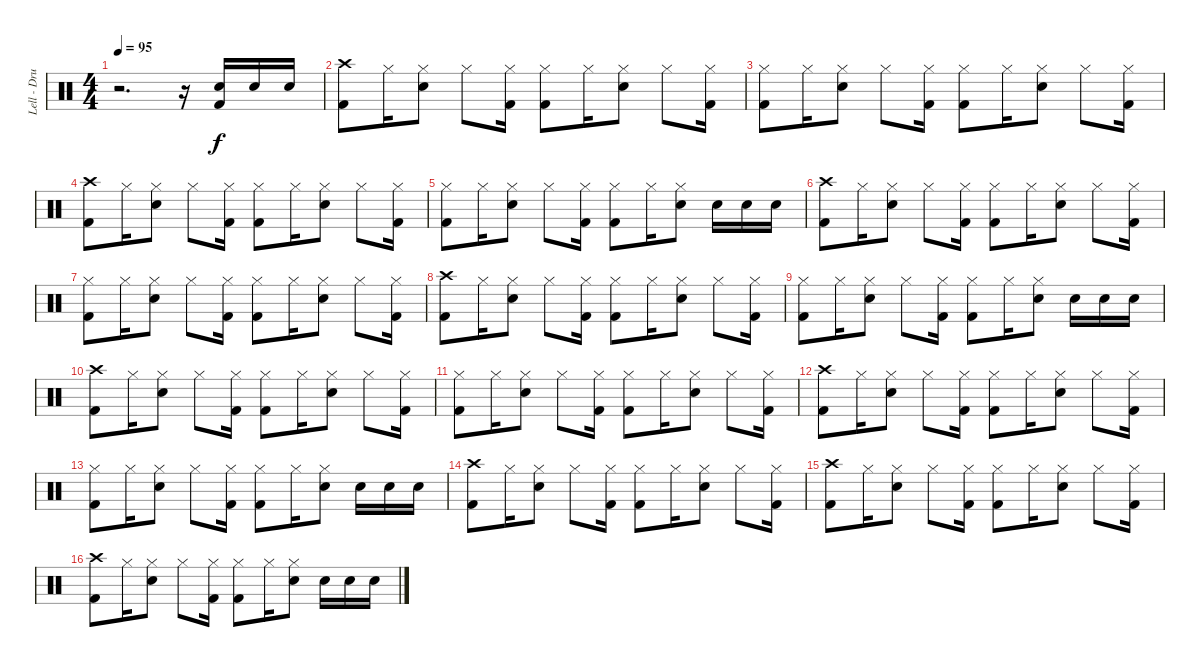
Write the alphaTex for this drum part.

\track ("Lell - Drums" "Lell - Dru") {instrument percussion}
\staff {score}
\articulation defaults
\ts (4 4)
\tempo 95
\clef neutral
\ks c
r.2{d dy f} r.16 ("Snare (hit) 2" "Kick (hit) 2").16 "Snare (hit) 2".16 "Snare (hit) 2".16 |
("Crash high (hit)" "Kick (hit) 2").8 "Hi-Hat (closed)".16 ("Hi-Hat (closed)" "Snare (hit) 2").8 "Hi-Hat (closed)".8 ("Hi-Hat (closed)" "Kick (hit) 2").16 ("Hi-Hat (closed)" "Kick (hit) 2").8 "Hi-Hat (closed)".16 ("Hi-Hat (closed)" "Snare (hit) 2").8 "Hi-Hat (closed)".8 ("Hi-Hat (closed)" "Kick (hit) 2").16 |
("Hi-Hat (closed)" "Kick (hit) 2").8 "Hi-Hat (closed)".16 ("Hi-Hat (closed)" "Snare (hit) 2").8 "Hi-Hat (closed)".8 ("Hi-Hat (closed)" "Kick (hit) 2").16 ("Hi-Hat (closed)" "Kick (hit) 2").8 "Hi-Hat (closed)".16 ("Hi-Hat (closed)" "Snare (hit) 2").8 "Hi-Hat (closed)".8 ("Hi-Hat (closed)" "Kick (hit) 2").16 |
("Crash high (hit)" "Kick (hit) 2").8 "Hi-Hat (closed)".16 ("Hi-Hat (closed)" "Snare (hit) 2").8 "Hi-Hat (closed)".8 ("Hi-Hat (closed)" "Kick (hit) 2").16 ("Hi-Hat (closed)" "Kick (hit) 2").8 "Hi-Hat (closed)".16 ("Hi-Hat (closed)" "Snare (hit) 2").8 "Hi-Hat (closed)".8 ("Hi-Hat (closed)" "Kick (hit) 2").16 |
("Hi-Hat (closed)" "Kick (hit) 2").8 "Hi-Hat (closed)".16 ("Hi-Hat (closed)" "Snare (hit) 2").8 "Hi-Hat (closed)".8 ("Hi-Hat (closed)" "Kick (hit) 2").16 ("Hi-Hat (closed)" "Kick (hit) 2").8 "Hi-Hat (closed)".16 ("Hi-Hat (closed)" "Snare (hit) 2").8 "Snare (hit) 2".16 "Snare (hit) 2".16 "Snare (hit) 2".16 |
("Crash high (hit)" "Kick (hit) 2").8 "Hi-Hat (closed)".16 ("Hi-Hat (closed)" "Snare (hit) 2").8 "Hi-Hat (closed)".8 ("Hi-Hat (closed)" "Kick (hit) 2").16 ("Hi-Hat (closed)" "Kick (hit) 2").8 "Hi-Hat (closed)".16 ("Hi-Hat (closed)" "Snare (hit) 2").8 "Hi-Hat (closed)".8 ("Hi-Hat (closed)" "Kick (hit) 2").16 |
("Hi-Hat (closed)" "Kick (hit) 2").8 "Hi-Hat (closed)".16 ("Hi-Hat (closed)" "Snare (hit) 2").8 "Hi-Hat (closed)".8 ("Hi-Hat (closed)" "Kick (hit) 2").16 ("Hi-Hat (closed)" "Kick (hit) 2").8 "Hi-Hat (closed)".16 ("Hi-Hat (closed)" "Snare (hit) 2").8 "Hi-Hat (closed)".8 ("Hi-Hat (closed)" "Kick (hit) 2").16 |
("Crash high (hit)" "Kick (hit) 2").8 "Hi-Hat (closed)".16 ("Hi-Hat (closed)" "Snare (hit) 2").8 "Hi-Hat (closed)".8 ("Hi-Hat (closed)" "Kick (hit) 2").16 ("Hi-Hat (closed)" "Kick (hit) 2").8 "Hi-Hat (closed)".16 ("Hi-Hat (closed)" "Snare (hit) 2").8 "Hi-Hat (closed)".8 ("Hi-Hat (closed)" "Kick (hit) 2").16 |
("Hi-Hat (closed)" "Kick (hit) 2").8 "Hi-Hat (closed)".16 ("Hi-Hat (closed)" "Snare (hit) 2").8 "Hi-Hat (closed)".8 ("Hi-Hat (closed)" "Kick (hit) 2").16 ("Hi-Hat (closed)" "Kick (hit) 2").8 "Hi-Hat (closed)".16 ("Hi-Hat (closed)" "Snare (hit) 2").8 "Snare (hit) 2".16 "Snare (hit) 2".16 "Snare (hit) 2".16 |
("Crash high (hit)" "Kick (hit) 2").8 "Hi-Hat (closed)".16 ("Hi-Hat (closed)" "Snare (hit) 2").8 "Hi-Hat (closed)".8 ("Hi-Hat (closed)" "Kick (hit) 2").16 ("Hi-Hat (closed)" "Kick (hit) 2").8 "Hi-Hat (closed)".16 ("Hi-Hat (closed)" "Snare (hit) 2").8 "Hi-Hat (closed)".8 ("Hi-Hat (closed)" "Kick (hit) 2").16 |
("Hi-Hat (closed)" "Kick (hit) 2").8 "Hi-Hat (closed)".16 ("Hi-Hat (closed)" "Snare (hit) 2").8 "Hi-Hat (closed)".8 ("Hi-Hat (closed)" "Kick (hit) 2").16 ("Hi-Hat (closed)" "Kick (hit) 2").8 "Hi-Hat (closed)".16 ("Hi-Hat (closed)" "Snare (hit) 2").8 "Hi-Hat (closed)".8 ("Hi-Hat (closed)" "Kick (hit) 2").16 |
("Crash high (hit)" "Kick (hit) 2").8 "Hi-Hat (closed)".16 ("Hi-Hat (closed)" "Snare (hit) 2").8 "Hi-Hat (closed)".8 ("Hi-Hat (closed)" "Kick (hit) 2").16 ("Hi-Hat (closed)" "Kick (hit) 2").8 "Hi-Hat (closed)".16 ("Hi-Hat (closed)" "Snare (hit) 2").8 "Hi-Hat (closed)".8 ("Hi-Hat (closed)" "Kick (hit) 2").16 |
("Hi-Hat (closed)" "Kick (hit) 2").8 "Hi-Hat (closed)".16 ("Hi-Hat (closed)" "Snare (hit) 2").8 "Hi-Hat (closed)".8 ("Hi-Hat (closed)" "Kick (hit) 2").16 ("Hi-Hat (closed)" "Kick (hit) 2").8 "Hi-Hat (closed)".16 ("Hi-Hat (closed)" "Snare (hit) 2").8 "Snare (hit) 2".16 "Snare (hit) 2".16 "Snare (hit) 2".16 |
("Crash high (hit)" "Kick (hit) 2").8 "Hi-Hat (closed)".16 ("Hi-Hat (closed)" "Snare (hit) 2").8 "Hi-Hat (closed)".8 ("Hi-Hat (closed)" "Kick (hit) 2").16 ("Hi-Hat (closed)" "Kick (hit) 2").8 "Hi-Hat (closed)".16 ("Hi-Hat (closed)" "Snare (hit) 2").8 "Hi-Hat (closed)".8 ("Hi-Hat (closed)" "Kick (hit) 2").16 |
("Crash high (hit)" "Kick (hit) 2").8 "Hi-Hat (closed)".16 ("Hi-Hat (closed)" "Snare (hit) 2").8 "Hi-Hat (closed)".8 ("Hi-Hat (closed)" "Kick (hit) 2").16 ("Hi-Hat (closed)" "Kick (hit) 2").8 "Hi-Hat (closed)".16 ("Hi-Hat (closed)" "Snare (hit) 2").8 "Hi-Hat (closed)".8 ("Hi-Hat (closed)" "Kick (hit) 2").16 |
("Crash high (hit)" "Kick (hit) 2").8 "Hi-Hat (closed)".16 ("Hi-Hat (closed)" "Snare (hit) 2").8 "Hi-Hat (closed)".8 ("Hi-Hat (closed)" "Kick (hit) 2").16 ("Hi-Hat (closed)" "Kick (hit) 2").8 "Hi-Hat (closed)".16 ("Hi-Hat (closed)" "Snare (hit) 2").8 "Snare (hit) 2".16 "Snare (hit) 2".16 "Snare (hit) 2".16
